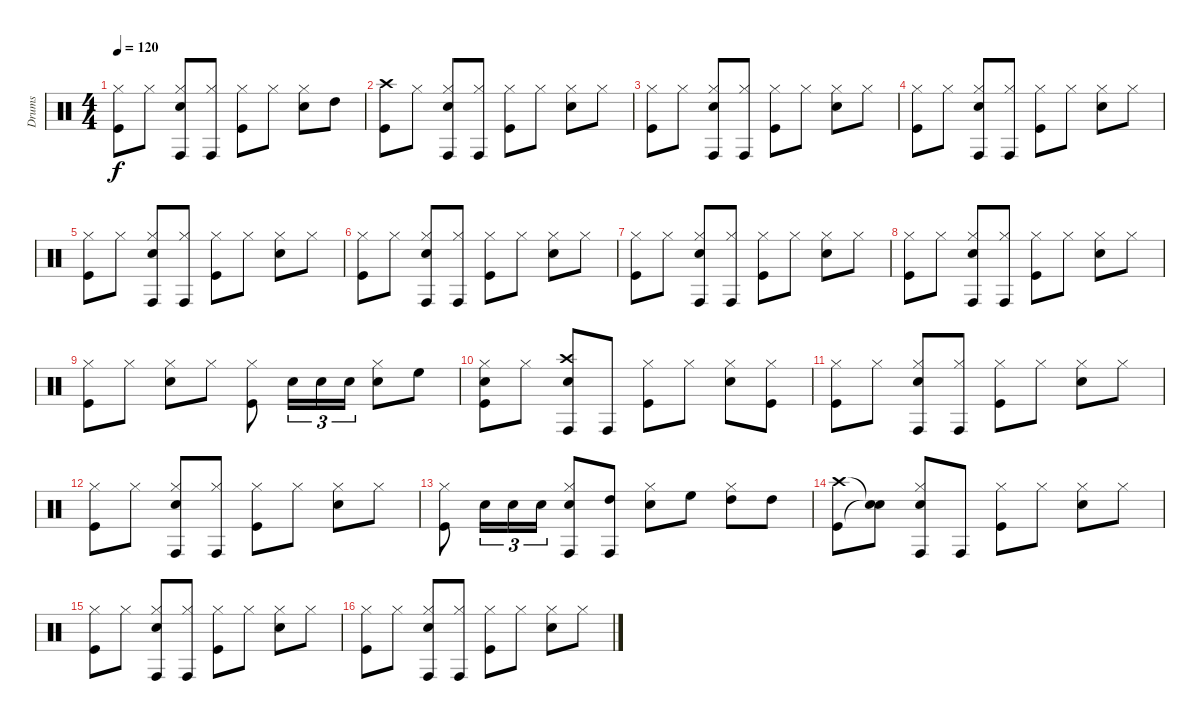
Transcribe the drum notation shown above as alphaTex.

\track ("Drums" "Drums") {instrument percussion}
\staff {score}
\articulation defaults
\ts (4 4)
\tempo 120
\clef neutral
\ks c
("Hi-Hat (closed)" "Kick (hit)").8{dy f} "Hi-Hat (closed)".8 ("Hi-Hat (closed)" "Conga high (hit)" "Snare (hit) 2").8 ("Hi-Hat (closed)" "Conga high (hit)").8 ("Hi-Hat (closed)" "Kick (hit)").8 "Hi-Hat (closed)".8 ("Hi-Hat (closed)" "Snare (hit) 2").8 "High Tom (hit)".8 |
("Crash high (hit)" "Kick (hit)").8 "Hi-Hat (closed)".8 ("Hi-Hat (closed)" "Conga high (hit)" "Snare (hit) 2").8 ("Hi-Hat (closed)" "Conga high (hit)").8 ("Hi-Hat (closed)" "Kick (hit)").8 "Hi-Hat (closed)".8 ("Hi-Hat (closed)" "Snare (hit) 2").8 "Hi-Hat (closed)".8 |
("Hi-Hat (closed)" "Kick (hit)").8 "Hi-Hat (closed)".8 ("Hi-Hat (closed)" "Conga high (hit)" "Snare (hit) 2").8 ("Hi-Hat (closed)" "Conga high (hit)").8 ("Hi-Hat (closed)" "Kick (hit)").8 "Hi-Hat (closed)".8 ("Hi-Hat (closed)" "Snare (hit) 2").8 "Hi-Hat (closed)".8 |
("Hi-Hat (closed)" "Kick (hit)").8 "Hi-Hat (closed)".8 ("Hi-Hat (closed)" "Conga high (hit)" "Snare (hit) 2").8 ("Hi-Hat (closed)" "Conga high (hit)").8 ("Hi-Hat (closed)" "Kick (hit)").8 "Hi-Hat (closed)".8 ("Hi-Hat (closed)" "Snare (hit) 2").8 "Hi-Hat (closed)".8 |
("Hi-Hat (closed)" "Kick (hit)").8 "Hi-Hat (closed)".8 ("Hi-Hat (closed)" "Conga high (hit)" "Snare (hit) 2").8 ("Hi-Hat (closed)" "Conga high (hit)").8 ("Hi-Hat (closed)" "Kick (hit)").8 "Hi-Hat (closed)".8 ("Hi-Hat (closed)" "Snare (hit) 2").8 "Hi-Hat (closed)".8 |
("Hi-Hat (closed)" "Kick (hit)").8 "Hi-Hat (closed)".8 ("Hi-Hat (closed)" "Conga high (hit)" "Snare (hit) 2").8 ("Hi-Hat (closed)" "Conga high (hit)").8 ("Hi-Hat (closed)" "Kick (hit)").8 "Hi-Hat (closed)".8 ("Hi-Hat (closed)" "Snare (hit) 2").8 "Hi-Hat (closed)".8 |
("Hi-Hat (closed)" "Kick (hit)").8 "Hi-Hat (closed)".8 ("Hi-Hat (closed)" "Conga high (hit)" "Snare (hit) 2").8 ("Hi-Hat (closed)" "Conga high (hit)").8 ("Hi-Hat (closed)" "Kick (hit)").8 "Hi-Hat (closed)".8 ("Hi-Hat (closed)" "Snare (hit) 2").8 "Hi-Hat (closed)".8 |
("Hi-Hat (closed)" "Kick (hit)").8 "Hi-Hat (closed)".8 ("Hi-Hat (closed)" "Conga high (hit)" "Snare (hit) 2").8 ("Hi-Hat (closed)" "Conga high (hit)").8 ("Hi-Hat (closed)" "Kick (hit)").8 "Hi-Hat (closed)".8 ("Hi-Hat (closed)" "Snare (hit) 2").8 "Hi-Hat (closed)".8 |
("Hi-Hat (closed)" "Kick (hit)").8 "Hi-Hat (closed)".8 ("Hi-Hat (closed)" "Snare (hit) 2").8 "Hi-Hat (closed)".8 ("Hi-Hat (closed)" "Kick (hit)").8 "Snare (hit) 2".16{tu (3 2)} "Snare (hit) 2".16{tu (3 2)} "Snare (hit) 2".16{tu (3 2)} ("Hi-Hat (closed)" "Snare (hit) 2").8 "High Floor Tom (hit)".8 |
("Hi-Hat (closed)" "Snare (hit) 2" "Kick (hit)").8 "Hi-Hat (closed)".8 ("Crash high (hit)" "Conga high (hit)" "Snare (hit) 2").8 "Conga high (hit)".8 ("Hi-Hat (closed)" "Kick (hit)").8 "Hi-Hat (closed)".8 ("Hi-Hat (closed)" "Snare (hit) 2").8 ("Hi-Hat (closed)" "Kick (hit)").8 |
("Hi-Hat (closed)" "Kick (hit)").8 "Hi-Hat (closed)".8 ("Hi-Hat (closed)" "Conga high (hit)" "Snare (hit) 2").8 ("Hi-Hat (closed)" "Conga high (hit)").8 ("Hi-Hat (closed)" "Kick (hit)").8 "Hi-Hat (closed)".8 ("Hi-Hat (closed)" "Snare (hit) 2").8 "Hi-Hat (closed)".8 |
("Hi-Hat (closed)" "Kick (hit)").8 "Hi-Hat (closed)".8 ("Hi-Hat (closed)" "Conga high (hit)" "Snare (hit) 2").8 ("Hi-Hat (closed)" "Conga high (hit)").8 ("Hi-Hat (closed)" "Kick (hit)").8 "Hi-Hat (closed)".8 ("Hi-Hat (closed)" "Snare (hit) 2").8 "Hi-Hat (closed)".8 |
("Hi-Hat (closed)" "Kick (hit)").8 "Snare (hit) 2".16{tu (3 2)} "Snare (hit) 2".16{tu (3 2)} "Snare (hit) 2".16{tu (3 2)} ("Hi-Hat (closed)" "Conga high (hit)" "Snare (hit) 2").8 ("Conga high (hit)" "High Tom (hit)").8 ("Hi-Hat (closed)" "Snare (hit) 2").8 "High Floor Tom (hit)".8 ("Hi-Hat (closed)" "High Tom (hit)").8 "High Tom (hit)".8 |
("Crash high (hit)" "Kick (hit)").8 ("Snare (hit)"{t} "Snare (hit)"{t}).8 ("Hi-Hat (closed)" "Conga high (hit)" "Snare (hit) 2").8 "Conga high (hit)".8 ("Hi-Hat (closed)" "Kick (hit)").8 "Hi-Hat (closed)".8 ("Hi-Hat (closed)" "Snare (hit) 2").8 "Hi-Hat (closed)".8 |
("Hi-Hat (closed)" "Kick (hit)").8 "Hi-Hat (closed)".8 ("Hi-Hat (closed)" "Conga high (hit)" "Snare (hit) 2").8 ("Hi-Hat (closed)" "Conga high (hit)").8 ("Hi-Hat (closed)" "Kick (hit)").8 "Hi-Hat (closed)".8 ("Hi-Hat (closed)" "Snare (hit) 2").8 "Hi-Hat (closed)".8 |
("Hi-Hat (closed)" "Kick (hit)").8 "Hi-Hat (closed)".8 ("Hi-Hat (closed)" "Conga high (hit)" "Snare (hit) 2").8 ("Hi-Hat (closed)" "Conga high (hit)").8 ("Hi-Hat (closed)" "Kick (hit)").8 "Hi-Hat (closed)".8 ("Hi-Hat (closed)" "Snare (hit) 2").8 "Hi-Hat (closed)".8
